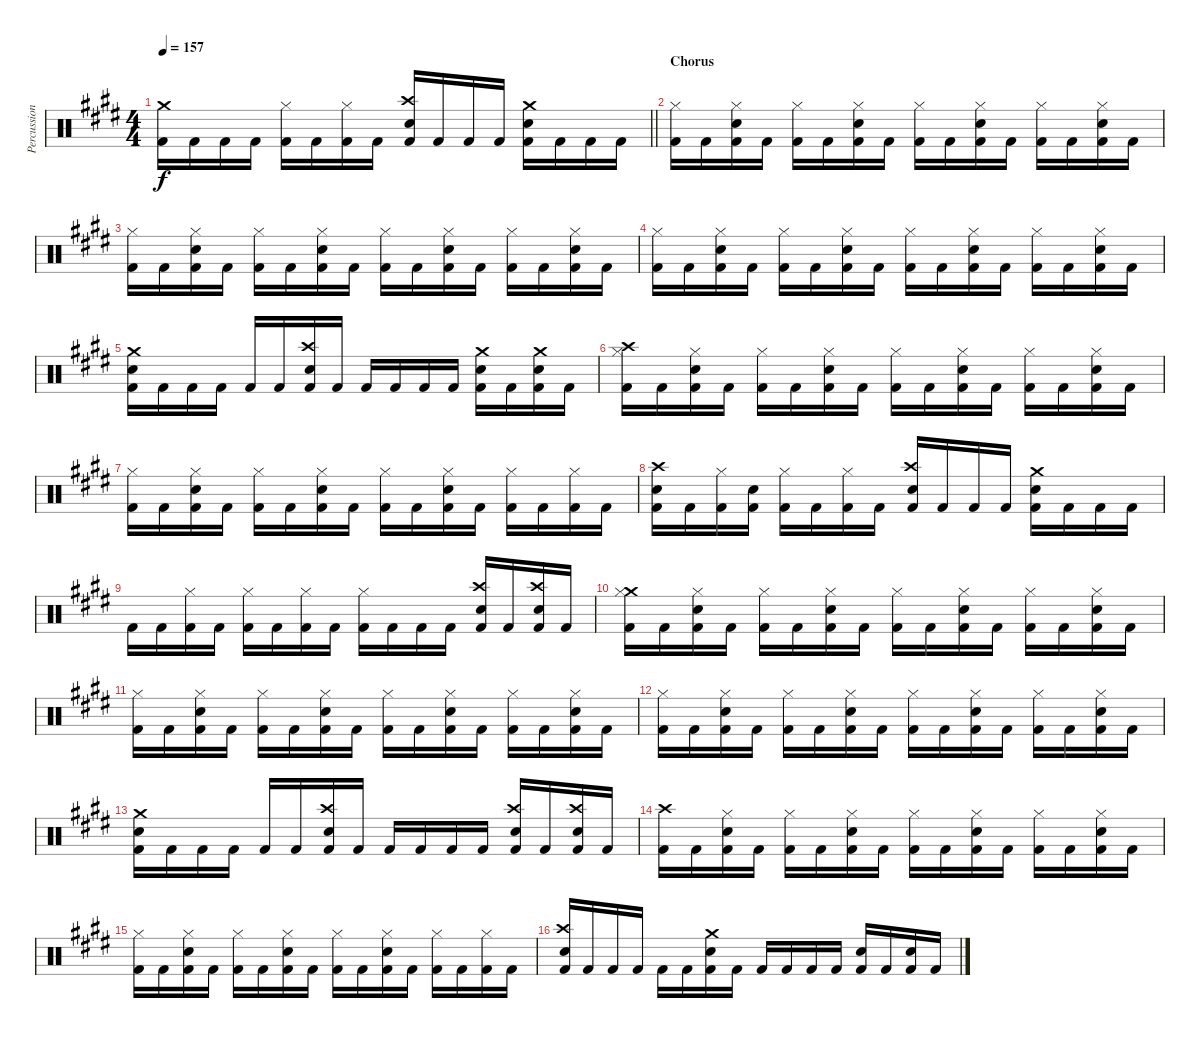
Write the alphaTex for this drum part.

\track ("Percussion (Thomen Stauch)" "Percussion") {instrument percussion}
\staff {score}
\articulation defaults
\ts (4 4)
\tempo 157
\clef neutral
\barLineRight lightlight
\ks c#minor
("Crash medium (hit)" "Kick (hit) 2").16{dy f} "Kick (hit) 2".16 "Kick (hit) 2".16 "Kick (hit) 2".16 ("Hi-Hat (closed)" "Kick (hit) 2").16 "Kick (hit) 2".16 ("Hi-Hat (closed)" "Kick (hit) 2").16 "Kick (hit) 2".16 ("Crash high (hit)" "Snare (hit) 2" "Kick (hit) 2").16 "Kick (hit) 2".16 "Kick (hit) 2".16 "Kick (hit) 2".16 ("Crash medium (hit)" "Snare (hit) 2" "Kick (hit) 2").16 "Kick (hit) 2".16 "Kick (hit) 2".16 "Kick (hit) 2".16 |
\section ("" "Chorus")
("Hi-Hat (closed)" "Kick (hit) 2").16 "Kick (hit) 2".16 ("Hi-Hat (closed)" "Snare (hit) 2" "Kick (hit) 2").16 "Kick (hit) 2".16 ("Hi-Hat (closed)" "Kick (hit) 2").16 "Kick (hit) 2".16 ("Hi-Hat (closed)" "Snare (hit) 2" "Kick (hit) 2").16 "Kick (hit) 2".16 ("Hi-Hat (closed)" "Kick (hit) 2").16 "Kick (hit) 2".16 ("Hi-Hat (closed)" "Snare (hit) 2" "Kick (hit) 2").16 "Kick (hit) 2".16 ("Hi-Hat (closed)" "Kick (hit) 2").16 "Kick (hit) 2".16 ("Hi-Hat (closed)" "Snare (hit) 2" "Kick (hit) 2").16 "Kick (hit) 2".16 |
("Hi-Hat (closed)" "Kick (hit) 2").16 "Kick (hit) 2".16 ("Hi-Hat (closed)" "Snare (hit) 2" "Kick (hit) 2").16 "Kick (hit) 2".16 ("Hi-Hat (closed)" "Kick (hit) 2").16 "Kick (hit) 2".16 ("Hi-Hat (closed)" "Snare (hit) 2" "Kick (hit) 2").16 "Kick (hit) 2".16 ("Hi-Hat (closed)" "Kick (hit) 2").16 "Kick (hit) 2".16 ("Hi-Hat (closed)" "Snare (hit) 2" "Kick (hit) 2").16 "Kick (hit) 2".16 ("Hi-Hat (closed)" "Kick (hit) 2").16 "Kick (hit) 2".16 ("Hi-Hat (closed)" "Snare (hit) 2" "Kick (hit) 2").16 "Kick (hit) 2".16 |
("Hi-Hat (closed)" "Kick (hit) 2").16 "Kick (hit) 2".16 ("Hi-Hat (closed)" "Snare (hit) 2" "Kick (hit) 2").16 "Kick (hit) 2".16 ("Hi-Hat (closed)" "Kick (hit) 2").16 "Kick (hit) 2".16 ("Hi-Hat (closed)" "Snare (hit) 2" "Kick (hit) 2").16 "Kick (hit) 2".16 ("Hi-Hat (closed)" "Kick (hit) 2").16 "Kick (hit) 2".16 ("Hi-Hat (closed)" "Snare (hit) 2" "Kick (hit) 2").16 "Kick (hit) 2".16 ("Hi-Hat (closed)" "Kick (hit) 2").16 "Kick (hit) 2".16 ("Hi-Hat (closed)" "Snare (hit) 2" "Kick (hit) 2").16 "Kick (hit) 2".16 |
("Crash medium (hit)" "Snare (hit) 2" "Kick (hit) 2").16 "Kick (hit) 2".16 "Kick (hit) 2".16 "Kick (hit) 2".16 "Kick (hit) 2".16 "Kick (hit) 2".16 ("Crash high (hit)" "Snare (hit) 2" "Kick (hit) 2").16 "Kick (hit) 2".16 "Kick (hit) 2".16 "Kick (hit) 2".16 "Kick (hit) 2".16 "Kick (hit) 2".16 ("Crash medium (hit)" "Snare (hit) 2" "Kick (hit) 2").16 "Kick (hit) 2".16 ("Crash medium (hit)" "Snare (hit) 2" "Kick (hit) 2").16 "Kick (hit) 2".16 |
("Crash high (hit)" "Hi-Hat (closed)" "Kick (hit) 2").16 "Kick (hit) 2".16 ("Hi-Hat (closed)" "Snare (hit) 2" "Kick (hit) 2").16 "Kick (hit) 2".16 ("Hi-Hat (closed)" "Kick (hit) 2").16 "Kick (hit) 2".16 ("Hi-Hat (closed)" "Snare (hit) 2" "Kick (hit) 2").16 "Kick (hit) 2".16 ("Hi-Hat (closed)" "Kick (hit) 2").16 "Kick (hit) 2".16 ("Hi-Hat (closed)" "Snare (hit) 2" "Kick (hit) 2").16 "Kick (hit) 2".16 ("Hi-Hat (closed)" "Kick (hit) 2").16 "Kick (hit) 2".16 ("Hi-Hat (closed)" "Snare (hit) 2" "Kick (hit) 2").16 "Kick (hit) 2".16 |
("Hi-Hat (closed)" "Kick (hit) 2").16 "Kick (hit) 2".16 ("Hi-Hat (closed)" "Snare (hit) 2" "Kick (hit) 2").16 "Kick (hit) 2".16 ("Hi-Hat (closed)" "Kick (hit) 2").16 "Kick (hit) 2".16 ("Hi-Hat (closed)" "Snare (hit) 2" "Kick (hit) 2").16 "Kick (hit) 2".16 ("Hi-Hat (closed)" "Kick (hit) 2").16 "Kick (hit) 2".16 ("Hi-Hat (closed)" "Snare (hit) 2" "Kick (hit) 2").16 "Kick (hit) 2".16 ("Hi-Hat (closed)" "Kick (hit) 2").16 "Kick (hit) 2".16 ("Hi-Hat (closed)" "Kick (hit) 2").16 "Kick (hit) 2".16 |
("Crash high (hit)" "Snare (hit) 2" "Kick (hit) 2").16 "Kick (hit) 2".16 ("Hi-Hat (closed)" "Kick (hit) 2").16 ("Snare (hit) 2" "Kick (hit) 2").16 ("Hi-Hat (closed)" "Kick (hit) 2").16 "Kick (hit) 2".16 ("Hi-Hat (closed)" "Kick (hit) 2").16 "Kick (hit) 2".16 ("Crash high (hit)" "Snare (hit) 2" "Kick (hit) 2").16 "Kick (hit) 2".16 "Kick (hit) 2".16 "Kick (hit) 2".16 ("Crash medium (hit)" "Snare (hit) 2" "Kick (hit) 2").16 "Kick (hit) 2".16 "Kick (hit) 2".16 "Kick (hit) 2".16 |
"Kick (hit) 2".16 "Kick (hit) 2".16 ("Hi-Hat (closed)" "Kick (hit) 2").16 "Kick (hit) 2".16 ("Hi-Hat (closed)" "Kick (hit) 2").16 "Kick (hit) 2".16 ("Hi-Hat (closed)" "Kick (hit) 2").16 "Kick (hit) 2".16 ("Hi-Hat (closed)" "Kick (hit) 2").16 "Kick (hit) 2".16 "Kick (hit) 2".16 "Kick (hit) 2".16 ("Crash high (hit)" "Snare (hit) 2" "Kick (hit) 2").16 "Kick (hit) 2".16 ("Crash high (hit)" "Snare (hit) 2" "Kick (hit) 2").16 "Kick (hit) 2".16 |
("Crash medium (hit)" "Hi-Hat (closed)" "Kick (hit) 2").16 "Kick (hit) 2".16 ("Hi-Hat (closed)" "Snare (hit) 2" "Kick (hit) 2").16 "Kick (hit) 2".16 ("Hi-Hat (closed)" "Kick (hit) 2").16 "Kick (hit) 2".16 ("Hi-Hat (closed)" "Snare (hit) 2" "Kick (hit) 2").16 "Kick (hit) 2".16 ("Hi-Hat (closed)" "Kick (hit) 2").16 "Kick (hit) 2".16 ("Hi-Hat (closed)" "Snare (hit) 2" "Kick (hit) 2").16 "Kick (hit) 2".16 ("Hi-Hat (closed)" "Kick (hit) 2").16 "Kick (hit) 2".16 ("Hi-Hat (closed)" "Snare (hit) 2" "Kick (hit) 2").16 "Kick (hit) 2".16 |
("Hi-Hat (closed)" "Kick (hit) 2").16 "Kick (hit) 2".16 ("Hi-Hat (closed)" "Snare (hit) 2" "Kick (hit) 2").16 "Kick (hit) 2".16 ("Hi-Hat (closed)" "Kick (hit) 2").16 "Kick (hit) 2".16 ("Hi-Hat (closed)" "Snare (hit) 2" "Kick (hit) 2").16 "Kick (hit) 2".16 ("Hi-Hat (closed)" "Kick (hit) 2").16 "Kick (hit) 2".16 ("Hi-Hat (closed)" "Snare (hit) 2" "Kick (hit) 2").16 "Kick (hit) 2".16 ("Hi-Hat (closed)" "Kick (hit) 2").16 "Kick (hit) 2".16 ("Hi-Hat (closed)" "Snare (hit) 2" "Kick (hit) 2").16 "Kick (hit) 2".16 |
("Hi-Hat (closed)" "Kick (hit) 2").16 "Kick (hit) 2".16 ("Hi-Hat (closed)" "Snare (hit) 2" "Kick (hit) 2").16 "Kick (hit) 2".16 ("Hi-Hat (closed)" "Kick (hit) 2").16 "Kick (hit) 2".16 ("Hi-Hat (closed)" "Snare (hit) 2" "Kick (hit) 2").16 "Kick (hit) 2".16 ("Hi-Hat (closed)" "Kick (hit) 2").16 "Kick (hit) 2".16 ("Hi-Hat (closed)" "Snare (hit) 2" "Kick (hit) 2").16 "Kick (hit) 2".16 ("Hi-Hat (closed)" "Kick (hit) 2").16 "Kick (hit) 2".16 ("Hi-Hat (closed)" "Snare (hit) 2" "Kick (hit) 2").16 "Kick (hit) 2".16 |
("Crash medium (hit)" "Snare (hit) 2" "Kick (hit) 2").16 "Kick (hit) 2".16 "Kick (hit) 2".16 "Kick (hit) 2".16 "Kick (hit) 2".16 "Kick (hit) 2".16 ("Crash high (hit)" "Snare (hit) 2" "Kick (hit) 2").16 "Kick (hit) 2".16 "Kick (hit) 2".16 "Kick (hit) 2".16 "Kick (hit) 2".16 "Kick (hit) 2".16 ("Crash high (hit)" "Snare (hit) 2" "Kick (hit) 2").16 "Kick (hit) 2".16 ("Crash high (hit)" "Snare (hit) 2" "Kick (hit) 2").16 "Kick (hit) 2".16 |
("Crash high (hit)" "Kick (hit) 2").16 "Kick (hit) 2".16 ("Hi-Hat (closed)" "Snare (hit) 2" "Kick (hit) 2").16 "Kick (hit) 2".16 ("Hi-Hat (closed)" "Kick (hit) 2").16 "Kick (hit) 2".16 ("Hi-Hat (closed)" "Snare (hit) 2" "Kick (hit) 2").16 "Kick (hit) 2".16 ("Hi-Hat (closed)" "Kick (hit) 2").16 "Kick (hit) 2".16 ("Hi-Hat (closed)" "Snare (hit) 2" "Kick (hit) 2").16 "Kick (hit) 2".16 ("Hi-Hat (closed)" "Kick (hit) 2").16 "Kick (hit) 2".16 ("Hi-Hat (closed)" "Snare (hit) 2" "Kick (hit) 2").16 "Kick (hit) 2".16 |
("Hi-Hat (closed)" "Kick (hit) 2").16 "Kick (hit) 2".16 ("Hi-Hat (closed)" "Snare (hit) 2" "Kick (hit) 2").16 "Kick (hit) 2".16 ("Hi-Hat (closed)" "Kick (hit) 2").16 "Kick (hit) 2".16 ("Hi-Hat (closed)" "Snare (hit) 2" "Kick (hit) 2").16 "Kick (hit) 2".16 ("Hi-Hat (closed)" "Kick (hit) 2").16 "Kick (hit) 2".16 ("Hi-Hat (closed)" "Snare (hit) 2" "Kick (hit) 2").16 "Kick (hit) 2".16 ("Hi-Hat (closed)" "Kick (hit) 2").16 "Kick (hit) 2".16 ("Hi-Hat (closed)" "Kick (hit) 2").16 "Kick (hit) 2".16 |
("Crash high (hit)" "Snare (hit) 2" "Kick (hit) 2").16 "Kick (hit) 2".16 "Kick (hit) 2".16 "Kick (hit) 2".16 "Kick (hit) 2".16 "Kick (hit) 2".16 ("Crash medium (hit)" "Snare (hit) 2" "Kick (hit) 2").16 "Kick (hit) 2".16 "Kick (hit) 2".16 "Kick (hit) 2".16 "Kick (hit) 2".16 "Kick (hit) 2".16 ("Snare (hit) 2" "Kick (hit) 2").16 "Kick (hit) 2".16 ("Snare (hit) 2" "Kick (hit) 2").16 "Kick (hit) 2".16
